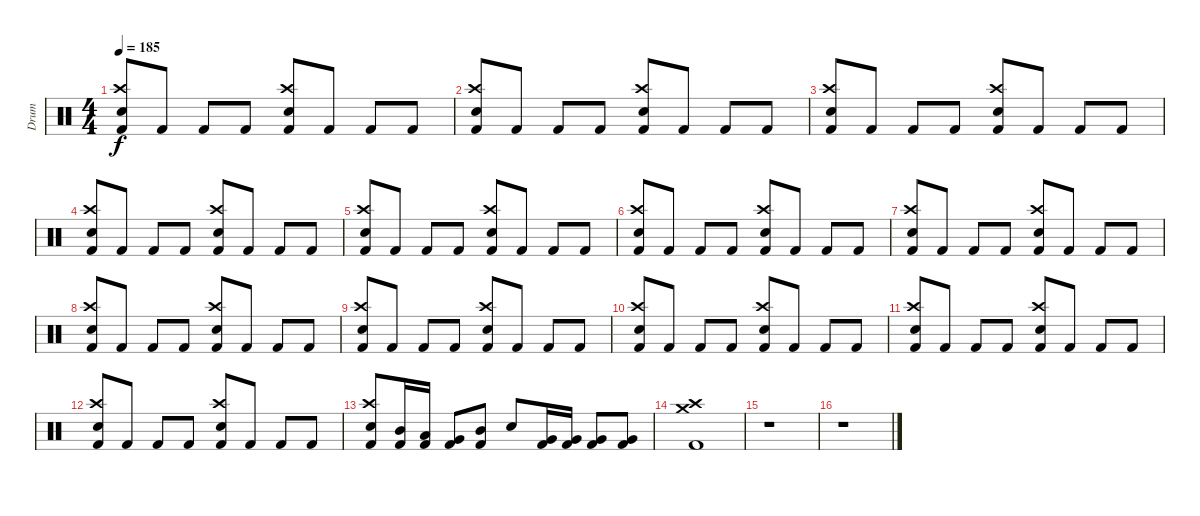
\track ("Drum" "Drum") {instrument percussion}
\staff {score}
\articulation defaults
\ts (4 4)
\tempo 185
\clef neutral
\ks c
("Kick (hit) 2" "Crash high (hit)" "Electric Snare (hit)").8{dy f} "Kick (hit) 2".8 "Kick (hit) 2".8 "Kick (hit) 2".8 ("Kick (hit) 2" "Crash high (hit)" "Electric Snare (hit)").8 "Kick (hit) 2".8 "Kick (hit) 2".8 "Kick (hit) 2".8 |
("Kick (hit) 2" "Crash high (hit)" "Electric Snare (hit)").8 "Kick (hit) 2".8 "Kick (hit) 2".8 "Kick (hit) 2".8 ("Kick (hit) 2" "Crash high (hit)" "Electric Snare (hit)").8 "Kick (hit) 2".8 "Kick (hit) 2".8 "Kick (hit) 2".8 |
("Kick (hit) 2" "Crash high (hit)" "Electric Snare (hit)").8 "Kick (hit) 2".8 "Kick (hit) 2".8 "Kick (hit) 2".8 ("Kick (hit) 2" "Crash high (hit)" "Electric Snare (hit)").8 "Kick (hit) 2".8 "Kick (hit) 2".8 "Kick (hit) 2".8 |
("Kick (hit) 2" "Crash high (hit)" "Electric Snare (hit)").8 "Kick (hit) 2".8 "Kick (hit) 2".8 "Kick (hit) 2".8 ("Kick (hit) 2" "Crash high (hit)" "Electric Snare (hit)").8 "Kick (hit) 2".8 "Kick (hit) 2".8 "Kick (hit) 2".8 |
("Kick (hit) 2" "Crash high (hit)" "Electric Snare (hit)").8 "Kick (hit) 2".8 "Kick (hit) 2".8 "Kick (hit) 2".8 ("Kick (hit) 2" "Crash high (hit)" "Electric Snare (hit)").8 "Kick (hit) 2".8 "Kick (hit) 2".8 "Kick (hit) 2".8 |
("Kick (hit) 2" "Crash high (hit)" "Electric Snare (hit)").8 "Kick (hit) 2".8 "Kick (hit) 2".8 "Kick (hit) 2".8 ("Kick (hit) 2" "Crash high (hit)" "Electric Snare (hit)").8 "Kick (hit) 2".8 "Kick (hit) 2".8 "Kick (hit) 2".8 |
("Kick (hit) 2" "Crash high (hit)" "Electric Snare (hit)").8 "Kick (hit) 2".8 "Kick (hit) 2".8 "Kick (hit) 2".8 ("Kick (hit) 2" "Crash high (hit)" "Electric Snare (hit)").8 "Kick (hit) 2".8 "Kick (hit) 2".8 "Kick (hit) 2".8 |
("Kick (hit) 2" "Crash high (hit)" "Electric Snare (hit)").8 "Kick (hit) 2".8 "Kick (hit) 2".8 "Kick (hit) 2".8 ("Kick (hit) 2" "Crash high (hit)" "Electric Snare (hit)").8 "Kick (hit) 2".8 "Kick (hit) 2".8 "Kick (hit) 2".8 |
("Kick (hit) 2" "Crash high (hit)" "Electric Snare (hit)").8 "Kick (hit) 2".8 "Kick (hit) 2".8 "Kick (hit) 2".8 ("Kick (hit) 2" "Crash high (hit)" "Electric Snare (hit)").8 "Kick (hit) 2".8 "Kick (hit) 2".8 "Kick (hit) 2".8 |
("Kick (hit) 2" "Crash high (hit)" "Electric Snare (hit)").8 "Kick (hit) 2".8 "Kick (hit) 2".8 "Kick (hit) 2".8 ("Kick (hit) 2" "Crash high (hit)" "Electric Snare (hit)").8 "Kick (hit) 2".8 "Kick (hit) 2".8 "Kick (hit) 2".8 |
("Kick (hit) 2" "Crash high (hit)" "Electric Snare (hit)").8 "Kick (hit) 2".8 "Kick (hit) 2".8 "Kick (hit) 2".8 ("Kick (hit) 2" "Crash high (hit)" "Electric Snare (hit)").8 "Kick (hit) 2".8 "Kick (hit) 2".8 "Kick (hit) 2".8 |
("Kick (hit) 2" "Crash high (hit)" "Electric Snare (hit)").8 "Kick (hit) 2".8 "Kick (hit) 2".8 "Kick (hit) 2".8 ("Kick (hit) 2" "Crash high (hit)" "Electric Snare (hit)").8 "Kick (hit) 2".8 "Kick (hit) 2".8 "Kick (hit) 2".8 |
("Electric Snare (hit)" "Crash high (hit)" "Kick (hit) 2").8 ("Mid Tom (hit)" "Kick (hit) 2").16 ("Low Tom (hit)" "Kick (hit) 2").16 ("Very Low Tom (hit)" "Kick (hit) 2").8 ("Mid Tom (hit)" "Kick (hit) 2").8 "Electric Snare (hit)".8 ("Very Low Tom (hit)" "Kick (hit) 2").16 ("Very Low Tom (hit)" "Kick (hit) 2").16 ("Very Low Tom (hit)" "Kick (hit) 2").8 ("Very Low Tom (hit)" "Kick (hit) 2").8 |
("Crash high (hit)" "Crash medium (hit)" "Kick (hit) 2").1 |
r.1 |
r.1
